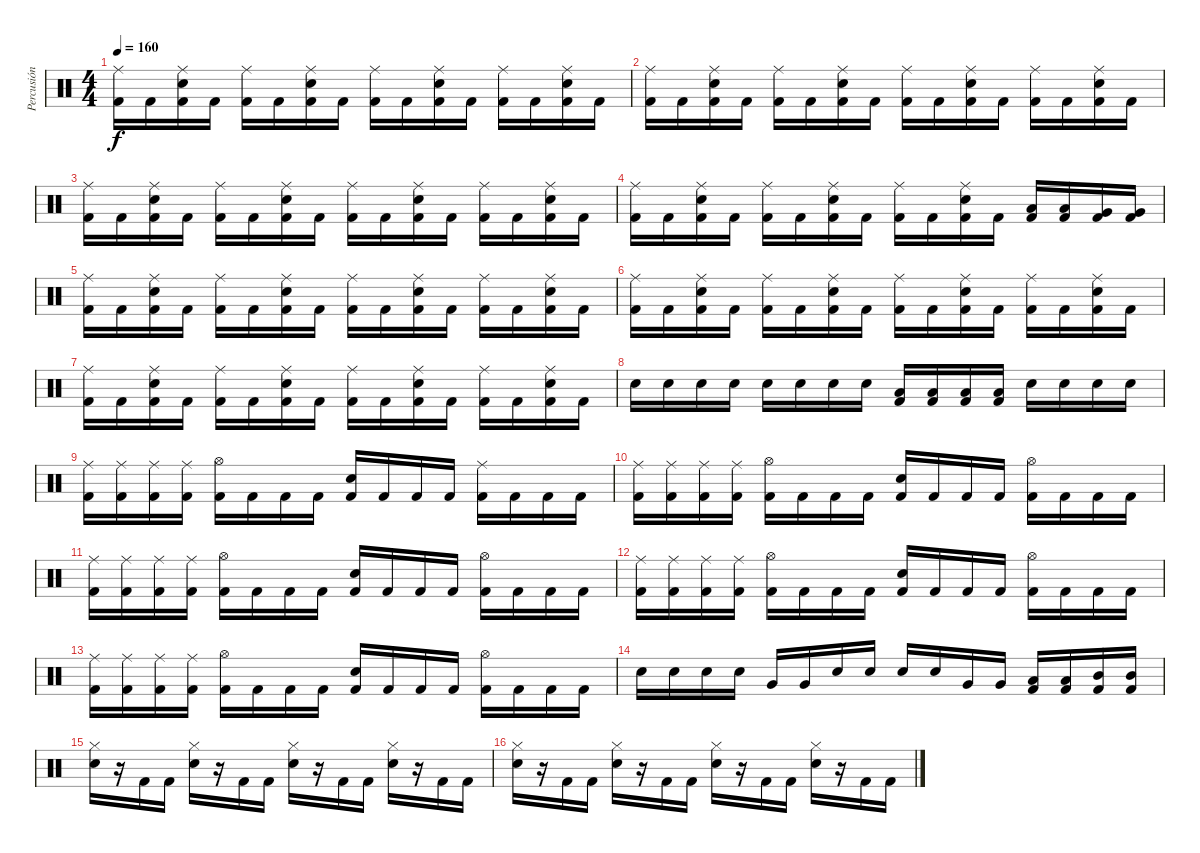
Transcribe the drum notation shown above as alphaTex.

\track ("Percusión" "Percusión") {instrument percussion}
\staff {score}
\articulation defaults
\ts (4 4)
\tempo 160
\clef neutral
\ks c
("Ride (middle)" "Kick (hit) 2").16{dy f} "Kick (hit) 2".16 ("Ride (middle)" "Snare (hit) 2" "Kick (hit) 2").16 "Kick (hit) 2".16 ("Ride (middle)" "Kick (hit) 2").16 "Kick (hit) 2".16 ("Ride (middle)" "Snare (hit) 2" "Kick (hit) 2").16 "Kick (hit) 2".16 ("Ride (middle)" "Kick (hit) 2").16 "Kick (hit) 2".16 ("Ride (middle)" "Snare (hit) 2" "Kick (hit) 2").16 "Kick (hit) 2".16 ("Ride (middle)" "Kick (hit) 2").16 "Kick (hit) 2".16 ("Ride (middle)" "Snare (hit) 2" "Kick (hit) 2").16 "Kick (hit) 2".16 |
("Ride (middle)" "Kick (hit) 2").16 "Kick (hit) 2".16 ("Ride (middle)" "Snare (hit) 2" "Kick (hit) 2").16 "Kick (hit) 2".16 ("Ride (middle)" "Kick (hit) 2").16 "Kick (hit) 2".16 ("Ride (middle)" "Snare (hit) 2" "Kick (hit) 2").16 "Kick (hit) 2".16 ("Ride (middle)" "Kick (hit) 2").16 "Kick (hit) 2".16 ("Ride (middle)" "Snare (hit) 2" "Kick (hit) 2").16 "Kick (hit) 2".16 ("Ride (middle)" "Kick (hit) 2").16 "Kick (hit) 2".16 ("Ride (middle)" "Snare (hit) 2" "Kick (hit) 2").16 "Kick (hit) 2".16 |
("Ride (middle)" "Kick (hit) 2").16 "Kick (hit) 2".16 ("Ride (middle)" "Snare (hit) 2" "Kick (hit) 2").16 "Kick (hit) 2".16 ("Ride (middle)" "Kick (hit) 2").16 "Kick (hit) 2".16 ("Ride (middle)" "Snare (hit) 2" "Kick (hit) 2").16 "Kick (hit) 2".16 ("Ride (middle)" "Kick (hit) 2").16 "Kick (hit) 2".16 ("Ride (middle)" "Snare (hit) 2" "Kick (hit) 2").16 "Kick (hit) 2".16 ("Ride (middle)" "Kick (hit) 2").16 "Kick (hit) 2".16 ("Ride (middle)" "Snare (hit) 2" "Kick (hit) 2").16 "Kick (hit) 2".16 |
("Ride (middle)" "Kick (hit) 2").16 "Kick (hit) 2".16 ("Ride (middle)" "Snare (hit) 2" "Kick (hit) 2").16 "Kick (hit) 2".16 ("Ride (middle)" "Kick (hit) 2").16 "Kick (hit) 2".16 ("Ride (middle)" "Snare (hit) 2" "Kick (hit) 2").16 "Kick (hit) 2".16 ("Ride (middle)" "Kick (hit) 2").16 "Kick (hit) 2".16 ("Ride (middle)" "Snare (hit) 2" "Kick (hit) 2").16 "Kick (hit) 2".16 ("Low Tom (hit)" "Kick (hit) 2").16 ("Low Tom (hit)" "Kick (hit) 2").16 ("Very Low Tom (hit)" "Kick (hit) 2").16 ("Very Low Tom (hit)" "Kick (hit) 2").16 |
("Ride (middle)" "Kick (hit) 2").16 "Kick (hit) 2".16 ("Ride (middle)" "Snare (hit) 2" "Kick (hit) 2").16 "Kick (hit) 2".16 ("Ride (middle)" "Kick (hit) 2").16 "Kick (hit) 2".16 ("Ride (middle)" "Snare (hit) 2" "Kick (hit) 2").16 "Kick (hit) 2".16 ("Ride (middle)" "Kick (hit) 2").16 "Kick (hit) 2".16 ("Ride (middle)" "Snare (hit) 2" "Kick (hit) 2").16 "Kick (hit) 2".16 ("Ride (middle)" "Kick (hit) 2").16 "Kick (hit) 2".16 ("Ride (middle)" "Snare (hit) 2" "Kick (hit) 2").16 "Kick (hit) 2".16 |
("Ride (middle)" "Kick (hit) 2").16 "Kick (hit) 2".16 ("Ride (middle)" "Snare (hit) 2" "Kick (hit) 2").16 "Kick (hit) 2".16 ("Ride (middle)" "Kick (hit) 2").16 "Kick (hit) 2".16 ("Ride (middle)" "Snare (hit) 2" "Kick (hit) 2").16 "Kick (hit) 2".16 ("Ride (middle)" "Kick (hit) 2").16 "Kick (hit) 2".16 ("Ride (middle)" "Snare (hit) 2" "Kick (hit) 2").16 "Kick (hit) 2".16 ("Ride (middle)" "Kick (hit) 2").16 "Kick (hit) 2".16 ("Ride (middle)" "Snare (hit) 2" "Kick (hit) 2").16 "Kick (hit) 2".16 |
("Ride (middle)" "Kick (hit) 2").16 "Kick (hit) 2".16 ("Ride (middle)" "Snare (hit) 2" "Kick (hit) 2").16 "Kick (hit) 2".16 ("Ride (middle)" "Kick (hit) 2").16 "Kick (hit) 2".16 ("Ride (middle)" "Snare (hit) 2" "Kick (hit) 2").16 "Kick (hit) 2".16 ("Ride (middle)" "Kick (hit) 2").16 "Kick (hit) 2".16 ("Ride (middle)" "Snare (hit) 2" "Kick (hit) 2").16 "Kick (hit) 2".16 ("Ride (middle)" "Kick (hit) 2").16 "Kick (hit) 2".16 ("Ride (middle)" "Snare (hit) 2" "Kick (hit) 2").16 "Kick (hit) 2".16 |
"Snare (hit) 2".16 "Snare (hit) 2".16 "Snare (hit) 2".16 "Snare (hit) 2".16 "Snare (hit) 2".16 "Snare (hit) 2".16 "Snare (hit) 2".16 "Snare (hit) 2".16 ("Low Tom (hit)" "Kick (hit) 2").16 ("Low Tom (hit)" "Kick (hit) 2").16 ("Low Tom (hit)" "Kick (hit) 2").16 ("Low Tom (hit)" "Kick (hit) 2").16 "Snare (hit) 2".16 "Snare (hit) 2".16 "Snare (hit) 2".16 "Snare (hit) 2".16 |
("Ride (middle)" "Kick (hit) 2").16 ("Ride (middle)" "Kick (hit) 2").16 ("Ride (middle)" "Kick (hit) 2").16 ("Ride (middle)" "Kick (hit) 2").16 ("Hi-Hat (open)" "Kick (hit) 2").16 "Kick (hit) 2".16 "Kick (hit) 2".16 "Kick (hit) 2".16 ("Snare (hit) 2" "Kick (hit) 2").16 "Kick (hit) 2".16 "Kick (hit) 2".16 "Kick (hit) 2".16 ("Ride (middle)" "Kick (hit) 2").16 "Kick (hit) 2".16 "Kick (hit) 2".16 "Kick (hit) 2".16 |
("Ride (middle)" "Kick (hit) 2").16 ("Ride (middle)" "Kick (hit) 2").16 ("Ride (middle)" "Kick (hit) 2").16 ("Ride (middle)" "Kick (hit) 2").16 ("Hi-Hat (open)" "Kick (hit) 2").16 "Kick (hit) 2".16 "Kick (hit) 2".16 "Kick (hit) 2".16 ("Snare (hit) 2" "Kick (hit) 2").16 "Kick (hit) 2".16 "Kick (hit) 2".16 "Kick (hit) 2".16 ("Hi-Hat (open)" "Kick (hit) 2").16 "Kick (hit) 2".16 "Kick (hit) 2".16 "Kick (hit) 2".16 |
("Ride (middle)" "Kick (hit) 2").16 ("Ride (middle)" "Kick (hit) 2").16 ("Ride (middle)" "Kick (hit) 2").16 ("Ride (middle)" "Kick (hit) 2").16 ("Hi-Hat (open)" "Kick (hit) 2").16 "Kick (hit) 2".16 "Kick (hit) 2".16 "Kick (hit) 2".16 ("Snare (hit) 2" "Kick (hit) 2").16 "Kick (hit) 2".16 "Kick (hit) 2".16 "Kick (hit) 2".16 ("Hi-Hat (open)" "Kick (hit) 2").16 "Kick (hit) 2".16 "Kick (hit) 2".16 "Kick (hit) 2".16 |
("Ride (middle)" "Kick (hit) 2").16 ("Ride (middle)" "Kick (hit) 2").16 ("Ride (middle)" "Kick (hit) 2").16 ("Ride (middle)" "Kick (hit) 2").16 ("Hi-Hat (open)" "Kick (hit) 2").16 "Kick (hit) 2".16 "Kick (hit) 2".16 "Kick (hit) 2".16 ("Snare (hit) 2" "Kick (hit) 2").16 "Kick (hit) 2".16 "Kick (hit) 2".16 "Kick (hit) 2".16 ("Hi-Hat (open)" "Kick (hit) 2").16 "Kick (hit) 2".16 "Kick (hit) 2".16 "Kick (hit) 2".16 |
("Ride (middle)" "Kick (hit) 2").16 ("Ride (middle)" "Kick (hit) 2").16 ("Ride (middle)" "Kick (hit) 2").16 ("Ride (middle)" "Kick (hit) 2").16 ("Hi-Hat (open)" "Kick (hit) 2").16 "Kick (hit) 2".16 "Kick (hit) 2".16 "Kick (hit) 2".16 ("Snare (hit) 2" "Kick (hit) 2").16 "Kick (hit) 2".16 "Kick (hit) 2".16 "Kick (hit) 2".16 ("Hi-Hat (open)" "Kick (hit) 2").16 "Kick (hit) 2".16 "Kick (hit) 2".16 "Kick (hit) 2".16 |
"Snare (hit) 2".16 "Snare (hit) 2".16 "Snare (hit) 2".16 "Snare (hit) 2".16 "Very Low Tom (hit)".16 "Very Low Tom (hit)".16 "Snare (hit) 2".16 "Snare (hit) 2".16 "Snare (hit) 2".16 "Snare (hit) 2".16 "Very Low Tom (hit)".16 "Very Low Tom (hit)".16 ("Low Tom (hit)" "Kick (hit) 2").16 ("Low Tom (hit)" "Kick (hit) 2").16 ("Mid Tom (hit)" "Kick (hit) 2").16 ("Mid Tom (hit)" "Kick (hit) 2").16 |
("Hi-Hat (closed)" "Snare (hit) 2").16 r.16 "Kick (hit) 2".16 "Kick (hit) 2".16 ("Hi-Hat (closed)" "Snare (hit) 2").16 r.16 "Kick (hit) 2".16 "Kick (hit) 2".16 ("Hi-Hat (closed)" "Snare (hit) 2").16 r.16 "Kick (hit) 2".16 "Kick (hit) 2".16 ("Hi-Hat (closed)" "Snare (hit) 2").16 r.16 "Kick (hit) 2".16 "Kick (hit) 2".16 |
("Hi-Hat (closed)" "Snare (hit) 2").16 r.16 "Kick (hit) 2".16 "Kick (hit) 2".16 ("Hi-Hat (closed)" "Snare (hit) 2").16 r.16 "Kick (hit) 2".16 "Kick (hit) 2".16 ("Hi-Hat (closed)" "Snare (hit) 2").16 r.16 "Kick (hit) 2".16 "Kick (hit) 2".16 ("Hi-Hat (closed)" "Snare (hit) 2").16 r.16 "Kick (hit) 2".16 "Kick (hit) 2".16
